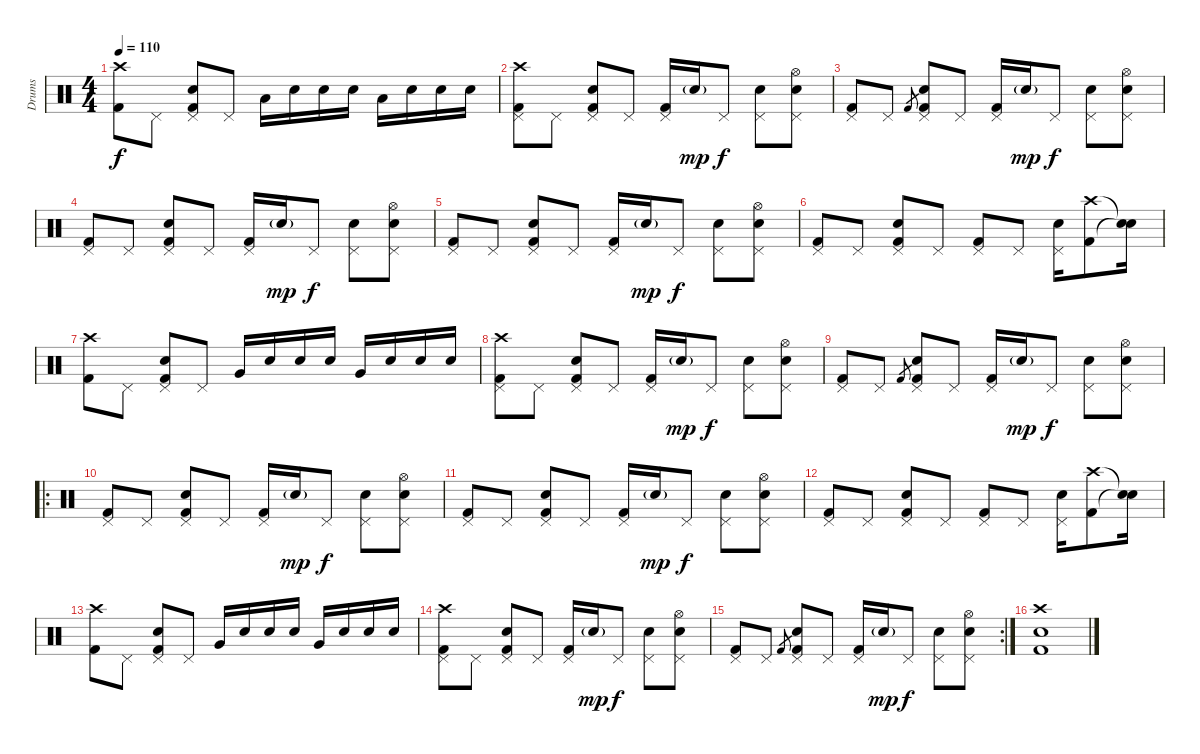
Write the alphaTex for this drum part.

\track ("Drums" "Drums") {instrument percussion}
\staff {score}
\articulation defaults
\ts (4 4)
\tempo 110
\clef neutral
\ks c
("Crash high (hit)" "Kick (hit) 2").8{dy f} "Pedal Hi-Hat (hit)".8 ("Pedal Hi-Hat (hit)" "Kick (hit) 2" "Snare (hit) 2").8 "Pedal Hi-Hat (hit)".8 "Low Tom (hit)".16 "Snare (hit) 2".16 "Snare (hit) 2".16 "Snare (hit) 2".16 "Low Tom (hit)".16 "Snare (hit) 2".16 "Snare (hit) 2".16 "Snare (hit) 2".16 |
("Pedal Hi-Hat (hit)" "Kick (hit) 2" "Crash high (hit)").8 "Pedal Hi-Hat (hit)".8 ("Pedal Hi-Hat (hit)" "Snare (hit) 2" "Kick (hit) 2").8 "Pedal Hi-Hat (hit)".8 ("Pedal Hi-Hat (hit)" "Kick (hit) 2").16 "Snare (hit) 2"{g}.16{dy mp} "Pedal Hi-Hat (hit)".8{dy f} ("Pedal Hi-Hat (hit)" "Snare (hit) 2").8 ("Pedal Hi-Hat (hit)" "Snare (hit) 2" "Hi-Hat (open)").8 |
("Pedal Hi-Hat (hit)" "Kick (hit) 2").8 "Pedal Hi-Hat (hit)".8 "Kick (hit) 2".8{gr} ("Pedal Hi-Hat (hit)" "Snare (hit) 2" "Kick (hit) 2").8 "Pedal Hi-Hat (hit)".8 ("Pedal Hi-Hat (hit)" "Kick (hit) 2").16 "Snare (hit) 2"{g}.16{dy mp} "Pedal Hi-Hat (hit)".8{dy f} ("Pedal Hi-Hat (hit)" "Snare (hit) 2").8 ("Pedal Hi-Hat (hit)" "Snare (hit) 2" "Hi-Hat (open)").8 |
("Pedal Hi-Hat (hit)" "Kick (hit) 2").8 "Pedal Hi-Hat (hit)".8 ("Pedal Hi-Hat (hit)" "Snare (hit) 2" "Kick (hit) 2").8 "Pedal Hi-Hat (hit)".8 ("Pedal Hi-Hat (hit)" "Kick (hit) 2").16 "Snare (hit) 2"{g}.16{dy mp} "Pedal Hi-Hat (hit)".8{dy f} ("Pedal Hi-Hat (hit)" "Snare (hit) 2").8 ("Pedal Hi-Hat (hit)" "Snare (hit) 2" "Hi-Hat (open)").8 |
("Pedal Hi-Hat (hit)" "Kick (hit) 2").8 "Pedal Hi-Hat (hit)".8 ("Pedal Hi-Hat (hit)" "Snare (hit) 2" "Kick (hit) 2").8 "Pedal Hi-Hat (hit)".8 ("Pedal Hi-Hat (hit)" "Kick (hit) 2").16 "Snare (hit) 2"{g}.16{dy mp} "Pedal Hi-Hat (hit)".8{dy f} ("Pedal Hi-Hat (hit)" "Snare (hit) 2").8 ("Pedal Hi-Hat (hit)" "Snare (hit) 2" "Hi-Hat (open)").8 |
("Pedal Hi-Hat (hit)" "Kick (hit) 2").8 "Pedal Hi-Hat (hit)".8 ("Pedal Hi-Hat (hit)" "Snare (hit) 2" "Kick (hit) 2").8 "Pedal Hi-Hat (hit)".8 ("Pedal Hi-Hat (hit)" "Kick (hit) 2").8 "Pedal Hi-Hat (hit)".8 ("Pedal Hi-Hat (hit)" "Snare (hit) 2").16 ("Crash high (hit)" "Kick (hit) 2").8 ("Snare (hit)"{t} "Snare (hit)"{t}).16 |
("Crash high (hit)" "Kick (hit) 2").8 "Pedal Hi-Hat (hit)".8 ("Pedal Hi-Hat (hit)" "Kick (hit) 2" "Snare (hit) 2").8 "Pedal Hi-Hat (hit)".8 "Very Low Tom (hit)".16 "Snare (hit) 2".16 "Snare (hit) 2".16 "Snare (hit) 2".16 "Very Low Tom (hit)".16 "Snare (hit) 2".16 "Snare (hit) 2".16 "Snare (hit) 2".16 |
("Pedal Hi-Hat (hit)" "Kick (hit) 2" "Crash high (hit)").8 "Pedal Hi-Hat (hit)".8 ("Pedal Hi-Hat (hit)" "Snare (hit) 2" "Kick (hit) 2").8 "Pedal Hi-Hat (hit)".8 ("Pedal Hi-Hat (hit)" "Kick (hit) 2").16 "Snare (hit) 2"{g}.16{dy mp} "Pedal Hi-Hat (hit)".8{dy f} ("Pedal Hi-Hat (hit)" "Snare (hit) 2").8 ("Pedal Hi-Hat (hit)" "Snare (hit) 2" "Hi-Hat (open)").8 |
("Pedal Hi-Hat (hit)" "Kick (hit) 2").8 "Pedal Hi-Hat (hit)".8 "Kick (hit) 2".8{gr} ("Pedal Hi-Hat (hit)" "Snare (hit) 2" "Kick (hit) 2").8 "Pedal Hi-Hat (hit)".8 ("Pedal Hi-Hat (hit)" "Kick (hit) 2").16 "Snare (hit) 2"{g}.16{dy mp} "Pedal Hi-Hat (hit)".8{dy f} ("Pedal Hi-Hat (hit)" "Snare (hit) 2").8 ("Pedal Hi-Hat (hit)" "Snare (hit) 2" "Hi-Hat (open)").8 |
\ro
("Pedal Hi-Hat (hit)" "Kick (hit) 2").8 "Pedal Hi-Hat (hit)".8 ("Pedal Hi-Hat (hit)" "Snare (hit) 2" "Kick (hit) 2").8 "Pedal Hi-Hat (hit)".8 ("Pedal Hi-Hat (hit)" "Kick (hit) 2").16 "Snare (hit) 2"{g}.16{dy mp} "Pedal Hi-Hat (hit)".8{dy f} ("Pedal Hi-Hat (hit)" "Snare (hit) 2").8 ("Pedal Hi-Hat (hit)" "Snare (hit) 2" "Hi-Hat (open)").8 |
("Pedal Hi-Hat (hit)" "Kick (hit) 2").8 "Pedal Hi-Hat (hit)".8 ("Pedal Hi-Hat (hit)" "Snare (hit) 2" "Kick (hit) 2").8 "Pedal Hi-Hat (hit)".8 ("Pedal Hi-Hat (hit)" "Kick (hit) 2").16 "Snare (hit) 2"{g}.16{dy mp} "Pedal Hi-Hat (hit)".8{dy f} ("Pedal Hi-Hat (hit)" "Snare (hit) 2").8 ("Pedal Hi-Hat (hit)" "Snare (hit) 2" "Hi-Hat (open)").8 |
("Pedal Hi-Hat (hit)" "Kick (hit) 2").8 "Pedal Hi-Hat (hit)".8 ("Pedal Hi-Hat (hit)" "Snare (hit) 2" "Kick (hit) 2").8 "Pedal Hi-Hat (hit)".8 ("Pedal Hi-Hat (hit)" "Kick (hit) 2").8 "Pedal Hi-Hat (hit)".8 ("Pedal Hi-Hat (hit)" "Snare (hit) 2").16 ("Crash high (hit)" "Kick (hit) 2").8 ("Snare (hit)"{t} "Snare (hit)"{t}).16 |
("Crash high (hit)" "Kick (hit) 2").8 "Pedal Hi-Hat (hit)".8 ("Pedal Hi-Hat (hit)" "Kick (hit) 2" "Snare (hit) 2").8 "Pedal Hi-Hat (hit)".8 "Very Low Tom (hit)".16 "Snare (hit) 2".16 "Snare (hit) 2".16 "Snare (hit) 2".16 "Very Low Tom (hit)".16 "Snare (hit) 2".16 "Snare (hit) 2".16 "Snare (hit) 2".16 |
("Pedal Hi-Hat (hit)" "Kick (hit) 2" "Crash high (hit)").8 "Pedal Hi-Hat (hit)".8 ("Pedal Hi-Hat (hit)" "Snare (hit) 2" "Kick (hit) 2").8 "Pedal Hi-Hat (hit)".8 ("Pedal Hi-Hat (hit)" "Kick (hit) 2").16 "Snare (hit) 2"{g}.16{dy mp} "Pedal Hi-Hat (hit)".8{dy f} ("Pedal Hi-Hat (hit)" "Snare (hit) 2").8 ("Pedal Hi-Hat (hit)" "Snare (hit) 2" "Hi-Hat (open)").8 |
\rc 2
("Pedal Hi-Hat (hit)" "Kick (hit) 2").8 "Pedal Hi-Hat (hit)".8 "Kick (hit) 2".8{gr} ("Pedal Hi-Hat (hit)" "Snare (hit) 2" "Kick (hit) 2").8 "Pedal Hi-Hat (hit)".8 ("Pedal Hi-Hat (hit)" "Kick (hit) 2").16 "Snare (hit) 2"{g}.16{dy mp} "Pedal Hi-Hat (hit)".8{dy f} ("Pedal Hi-Hat (hit)" "Snare (hit) 2").8 ("Pedal Hi-Hat (hit)" "Snare (hit) 2" "Hi-Hat (open)").8 |
("Crash high (hit)" "Kick (hit) 2" "Snare (hit) 2").1
